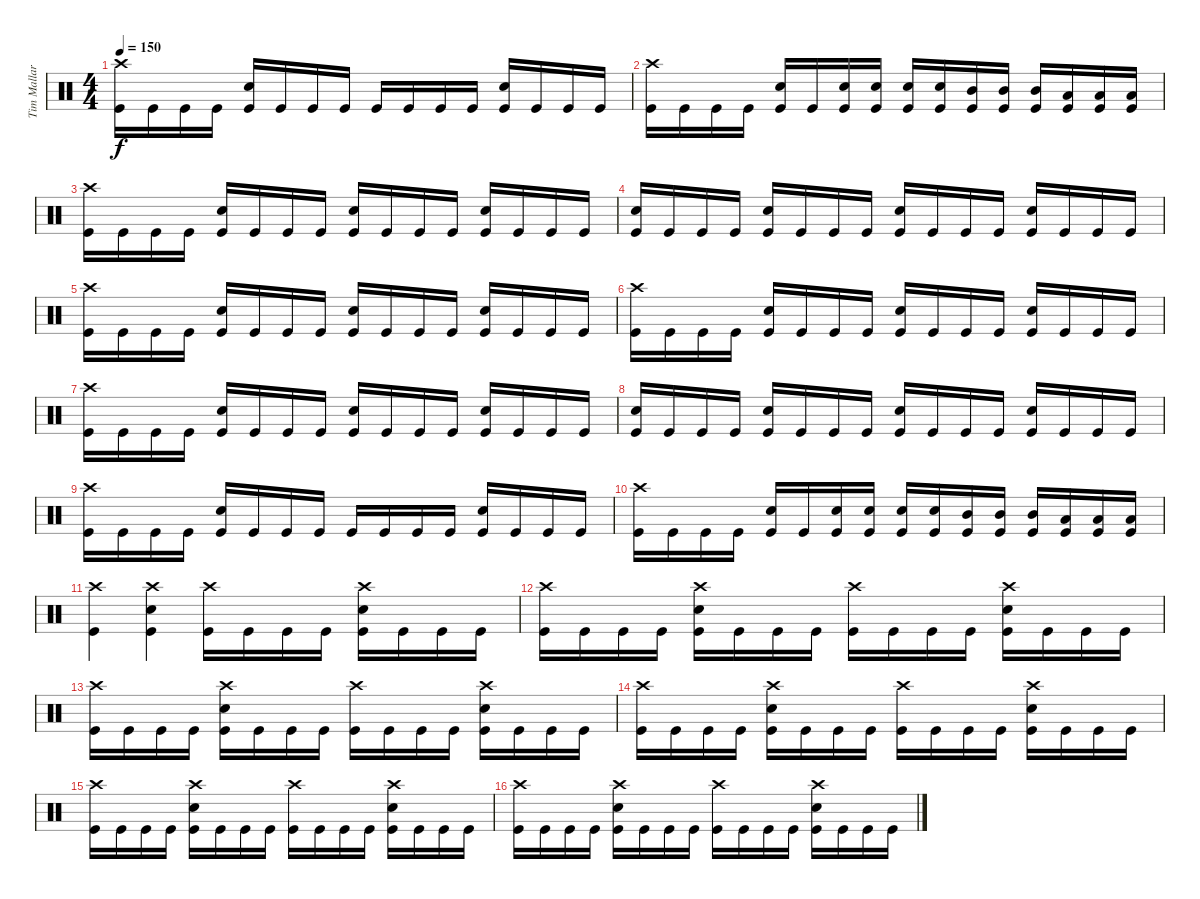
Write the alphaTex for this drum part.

\track ("Tim Mallare-Drums" "Tim Mallar") {instrument percussion}
\staff {score}
\articulation defaults
\ts (4 4)
\tempo 150
\clef neutral
\ks c
("Crash high (hit)" "Kick (hit)").16{dy f} "Kick (hit)".16 "Kick (hit)".16 "Kick (hit)".16 ("Electric Snare (hit)" "Kick (hit)").16 "Kick (hit)".16 "Kick (hit)".16 "Kick (hit)".16 "Kick (hit)".16 "Kick (hit)".16 "Kick (hit)".16 "Kick (hit)".16 ("Electric Snare (hit)" "Kick (hit)").16 "Kick (hit)".16 "Kick (hit)".16 "Kick (hit)".16 |
("Crash high (hit)" "Kick (hit)").16 "Kick (hit)".16 "Kick (hit)".16 "Kick (hit)".16 ("Electric Snare (hit)" "Kick (hit)").16 "Kick (hit)".16 ("Electric Snare (hit)" "Kick (hit)").16 ("Electric Snare (hit)" "Kick (hit)").16 ("Electric Snare (hit)" "Kick (hit)").16 ("Electric Snare (hit)" "Kick (hit)").16 ("Mid Tom (hit)" "Kick (hit)").16 ("Mid Tom (hit)" "Kick (hit)").16 ("Mid Tom (hit)" "Kick (hit)").16 ("Low Tom (hit)" "Kick (hit)").16 ("Low Tom (hit)" "Kick (hit)").16 ("Low Tom (hit)" "Kick (hit)").16 |
("Crash high (hit)" "Kick (hit)").16 "Kick (hit)".16 "Kick (hit)".16 "Kick (hit)".16 ("Electric Snare (hit)" "Kick (hit)").16 "Kick (hit)".16 "Kick (hit)".16 "Kick (hit)".16 ("Electric Snare (hit)" "Kick (hit)").16 "Kick (hit)".16 "Kick (hit)".16 "Kick (hit)".16 ("Electric Snare (hit)" "Kick (hit)").16 "Kick (hit)".16 "Kick (hit)".16 "Kick (hit)".16 |
("Electric Snare (hit)" "Kick (hit)").16 "Kick (hit)".16 "Kick (hit)".16 "Kick (hit)".16 ("Electric Snare (hit)" "Kick (hit)").16 "Kick (hit)".16 "Kick (hit)".16 "Kick (hit)".16 ("Electric Snare (hit)" "Kick (hit)").16 "Kick (hit)".16 "Kick (hit)".16 "Kick (hit)".16 ("Electric Snare (hit)" "Kick (hit)").16 "Kick (hit)".16 "Kick (hit)".16 "Kick (hit)".16 |
("Crash high (hit)" "Kick (hit)").16 "Kick (hit)".16 "Kick (hit)".16 "Kick (hit)".16 ("Electric Snare (hit)" "Kick (hit)").16 "Kick (hit)".16 "Kick (hit)".16 "Kick (hit)".16 ("Electric Snare (hit)" "Kick (hit)").16 "Kick (hit)".16 "Kick (hit)".16 "Kick (hit)".16 ("Electric Snare (hit)" "Kick (hit)").16 "Kick (hit)".16 "Kick (hit)".16 "Kick (hit)".16 |
("Crash high (hit)" "Kick (hit)").16 "Kick (hit)".16 "Kick (hit)".16 "Kick (hit)".16 ("Electric Snare (hit)" "Kick (hit)").16 "Kick (hit)".16 "Kick (hit)".16 "Kick (hit)".16 ("Electric Snare (hit)" "Kick (hit)").16 "Kick (hit)".16 "Kick (hit)".16 "Kick (hit)".16 ("Electric Snare (hit)" "Kick (hit)").16 "Kick (hit)".16 "Kick (hit)".16 "Kick (hit)".16 |
("Crash high (hit)" "Kick (hit)").16 "Kick (hit)".16 "Kick (hit)".16 "Kick (hit)".16 ("Electric Snare (hit)" "Kick (hit)").16 "Kick (hit)".16 "Kick (hit)".16 "Kick (hit)".16 ("Electric Snare (hit)" "Kick (hit)").16 "Kick (hit)".16 "Kick (hit)".16 "Kick (hit)".16 ("Electric Snare (hit)" "Kick (hit)").16 "Kick (hit)".16 "Kick (hit)".16 "Kick (hit)".16 |
("Electric Snare (hit)" "Kick (hit)").16 "Kick (hit)".16 "Kick (hit)".16 "Kick (hit)".16 ("Electric Snare (hit)" "Kick (hit)").16 "Kick (hit)".16 "Kick (hit)".16 "Kick (hit)".16 ("Electric Snare (hit)" "Kick (hit)").16 "Kick (hit)".16 "Kick (hit)".16 "Kick (hit)".16 ("Electric Snare (hit)" "Kick (hit)").16 "Kick (hit)".16 "Kick (hit)".16 "Kick (hit)".16 |
("Crash high (hit)" "Kick (hit)").16 "Kick (hit)".16 "Kick (hit)".16 "Kick (hit)".16 ("Electric Snare (hit)" "Kick (hit)").16 "Kick (hit)".16 "Kick (hit)".16 "Kick (hit)".16 "Kick (hit)".16 "Kick (hit)".16 "Kick (hit)".16 "Kick (hit)".16 ("Electric Snare (hit)" "Kick (hit)").16 "Kick (hit)".16 "Kick (hit)".16 "Kick (hit)".16 |
("Crash high (hit)" "Kick (hit)").16 "Kick (hit)".16 "Kick (hit)".16 "Kick (hit)".16 ("Electric Snare (hit)" "Kick (hit)").16 "Kick (hit)".16 ("Electric Snare (hit)" "Kick (hit)").16 ("Electric Snare (hit)" "Kick (hit)").16 ("Electric Snare (hit)" "Kick (hit)").16 ("Electric Snare (hit)" "Kick (hit)").16 ("Mid Tom (hit)" "Kick (hit)").16 ("Mid Tom (hit)" "Kick (hit)").16 ("Mid Tom (hit)" "Kick (hit)").16 ("Low Tom (hit)" "Kick (hit)").16 ("Low Tom (hit)" "Kick (hit)").16 ("Low Tom (hit)" "Kick (hit)").16 |
("Crash high (hit)" "Kick (hit)").4 ("Crash high (hit)" "Electric Snare (hit)" "Kick (hit)").4 ("Crash high (hit)" "Kick (hit)").16 "Kick (hit)".16 "Kick (hit)".16 "Kick (hit)".16 ("Crash high (hit)" "Electric Snare (hit)" "Kick (hit)").16 "Kick (hit)".16 "Kick (hit)".16 "Kick (hit)".16 |
("Crash high (hit)" "Kick (hit)").16 "Kick (hit)".16 "Kick (hit)".16 "Kick (hit)".16 ("Crash high (hit)" "Electric Snare (hit)" "Kick (hit)").16 "Kick (hit)".16 "Kick (hit)".16 "Kick (hit)".16 ("Crash high (hit)" "Kick (hit)").16 "Kick (hit)".16 "Kick (hit)".16 "Kick (hit)".16 ("Crash high (hit)" "Electric Snare (hit)" "Kick (hit)").16 "Kick (hit)".16 "Kick (hit)".16 "Kick (hit)".16 |
("Crash high (hit)" "Kick (hit)").16 "Kick (hit)".16 "Kick (hit)".16 "Kick (hit)".16 ("Crash high (hit)" "Electric Snare (hit)" "Kick (hit)").16 "Kick (hit)".16 "Kick (hit)".16 "Kick (hit)".16 ("Crash high (hit)" "Kick (hit)").16 "Kick (hit)".16 "Kick (hit)".16 "Kick (hit)".16 ("Crash high (hit)" "Electric Snare (hit)" "Kick (hit)").16 "Kick (hit)".16 "Kick (hit)".16 "Kick (hit)".16 |
("Crash high (hit)" "Kick (hit)").16 "Kick (hit)".16 "Kick (hit)".16 "Kick (hit)".16 ("Crash high (hit)" "Electric Snare (hit)" "Kick (hit)").16 "Kick (hit)".16 "Kick (hit)".16 "Kick (hit)".16 ("Crash high (hit)" "Kick (hit)").16 "Kick (hit)".16 "Kick (hit)".16 "Kick (hit)".16 ("Crash high (hit)" "Electric Snare (hit)" "Kick (hit)").16 "Kick (hit)".16 "Kick (hit)".16 "Kick (hit)".16 |
("Crash high (hit)" "Kick (hit)").16 "Kick (hit)".16 "Kick (hit)".16 "Kick (hit)".16 ("Crash high (hit)" "Electric Snare (hit)" "Kick (hit)").16 "Kick (hit)".16 "Kick (hit)".16 "Kick (hit)".16 ("Crash high (hit)" "Kick (hit)").16 "Kick (hit)".16 "Kick (hit)".16 "Kick (hit)".16 ("Crash high (hit)" "Electric Snare (hit)" "Kick (hit)").16 "Kick (hit)".16 "Kick (hit)".16 "Kick (hit)".16 |
("Crash high (hit)" "Kick (hit)").16 "Kick (hit)".16 "Kick (hit)".16 "Kick (hit)".16 ("Crash high (hit)" "Electric Snare (hit)" "Kick (hit)").16 "Kick (hit)".16 "Kick (hit)".16 "Kick (hit)".16 ("Crash high (hit)" "Kick (hit)").16 "Kick (hit)".16 "Kick (hit)".16 "Kick (hit)".16 ("Crash high (hit)" "Electric Snare (hit)" "Kick (hit)").16 "Kick (hit)".16 "Kick (hit)".16 "Kick (hit)".16
